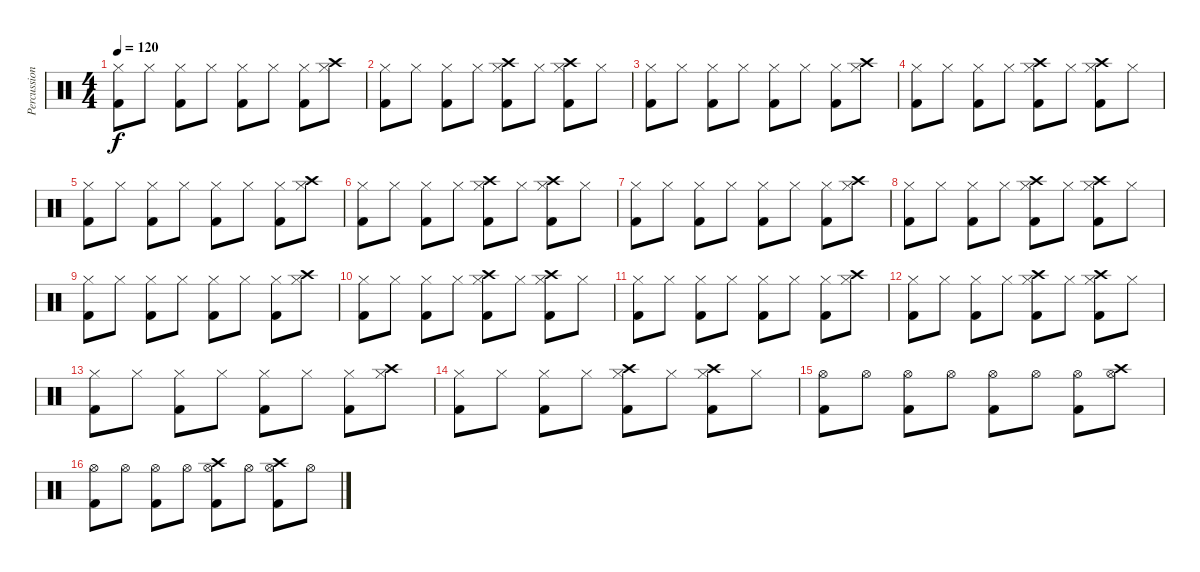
\track ("Percussion" "Percussion") {instrument percussion}
\staff {score}
\articulation defaults
\ts (4 4)
\tempo 120
\clef neutral
\ks c
("Hi-Hat (closed)" "Kick (hit) 2").8{dy f} "Hi-Hat (closed)".8 ("Hi-Hat (closed)" "Kick (hit) 2").8 "Hi-Hat (closed)".8 ("Hi-Hat (closed)" "Kick (hit) 2").8 "Hi-Hat (closed)".8 ("Hi-Hat (closed)" "Kick (hit) 2").8 ("Hi-Hat (closed)" "Crash high (hit)").8 |
("Hi-Hat (closed)" "Kick (hit) 2").8 "Hi-Hat (closed)".8 ("Hi-Hat (closed)" "Kick (hit) 2").8 "Hi-Hat (closed)".8 ("Hi-Hat (closed)" "Kick (hit) 2" "Crash high (hit)").8 "Hi-Hat (closed)".8 ("Hi-Hat (closed)" "Kick (hit) 2" "Crash high (hit)").8 "Hi-Hat (closed)".8 |
("Hi-Hat (closed)" "Kick (hit) 2").8 "Hi-Hat (closed)".8 ("Hi-Hat (closed)" "Kick (hit) 2").8 "Hi-Hat (closed)".8 ("Hi-Hat (closed)" "Kick (hit) 2").8 "Hi-Hat (closed)".8 ("Hi-Hat (closed)" "Kick (hit) 2").8 ("Hi-Hat (closed)" "Crash high (hit)").8 |
("Hi-Hat (closed)" "Kick (hit) 2").8 "Hi-Hat (closed)".8 ("Hi-Hat (closed)" "Kick (hit) 2").8 "Hi-Hat (closed)".8 ("Hi-Hat (closed)" "Kick (hit) 2" "Crash high (hit)").8 "Hi-Hat (closed)".8 ("Hi-Hat (closed)" "Kick (hit) 2" "Crash high (hit)").8 "Hi-Hat (closed)".8 |
("Hi-Hat (closed)" "Kick (hit) 2").8 "Hi-Hat (closed)".8 ("Hi-Hat (closed)" "Kick (hit) 2").8 "Hi-Hat (closed)".8 ("Hi-Hat (closed)" "Kick (hit) 2").8 "Hi-Hat (closed)".8 ("Hi-Hat (closed)" "Kick (hit) 2").8 ("Hi-Hat (closed)" "Crash high (hit)").8 |
("Hi-Hat (closed)" "Kick (hit) 2").8 "Hi-Hat (closed)".8 ("Hi-Hat (closed)" "Kick (hit) 2").8 "Hi-Hat (closed)".8 ("Hi-Hat (closed)" "Kick (hit) 2" "Crash high (hit)").8 "Hi-Hat (closed)".8 ("Hi-Hat (closed)" "Kick (hit) 2" "Crash high (hit)").8 "Hi-Hat (closed)".8 |
("Hi-Hat (closed)" "Kick (hit) 2").8 "Hi-Hat (closed)".8 ("Hi-Hat (closed)" "Kick (hit) 2").8 "Hi-Hat (closed)".8 ("Hi-Hat (closed)" "Kick (hit) 2").8 "Hi-Hat (closed)".8 ("Hi-Hat (closed)" "Kick (hit) 2").8 ("Hi-Hat (closed)" "Crash high (hit)").8 |
("Hi-Hat (closed)" "Kick (hit) 2").8 "Hi-Hat (closed)".8 ("Hi-Hat (closed)" "Kick (hit) 2").8 "Hi-Hat (closed)".8 ("Hi-Hat (closed)" "Kick (hit) 2" "Crash high (hit)").8 "Hi-Hat (closed)".8 ("Hi-Hat (closed)" "Kick (hit) 2" "Crash high (hit)").8 "Hi-Hat (closed)".8 |
("Hi-Hat (closed)" "Kick (hit) 2").8 "Hi-Hat (closed)".8 ("Hi-Hat (closed)" "Kick (hit) 2").8 "Hi-Hat (closed)".8 ("Hi-Hat (closed)" "Kick (hit) 2").8 "Hi-Hat (closed)".8 ("Hi-Hat (closed)" "Kick (hit) 2").8 ("Hi-Hat (closed)" "Crash high (hit)").8 |
("Hi-Hat (closed)" "Kick (hit) 2").8 "Hi-Hat (closed)".8 ("Hi-Hat (closed)" "Kick (hit) 2").8 "Hi-Hat (closed)".8 ("Hi-Hat (closed)" "Kick (hit) 2" "Crash high (hit)").8 "Hi-Hat (closed)".8 ("Hi-Hat (closed)" "Kick (hit) 2" "Crash high (hit)").8 "Hi-Hat (closed)".8 |
("Hi-Hat (closed)" "Kick (hit) 2").8 "Hi-Hat (closed)".8 ("Hi-Hat (closed)" "Kick (hit) 2").8 "Hi-Hat (closed)".8 ("Hi-Hat (closed)" "Kick (hit) 2").8 "Hi-Hat (closed)".8 ("Hi-Hat (closed)" "Kick (hit) 2").8 ("Hi-Hat (closed)" "Crash high (hit)").8 |
("Hi-Hat (closed)" "Kick (hit) 2").8 "Hi-Hat (closed)".8 ("Hi-Hat (closed)" "Kick (hit) 2").8 "Hi-Hat (closed)".8 ("Hi-Hat (closed)" "Kick (hit) 2" "Crash high (hit)").8 "Hi-Hat (closed)".8 ("Hi-Hat (closed)" "Kick (hit) 2" "Crash high (hit)").8 "Hi-Hat (closed)".8 |
("Hi-Hat (closed)" "Kick (hit) 2").8 "Hi-Hat (closed)".8 ("Hi-Hat (closed)" "Kick (hit) 2").8 "Hi-Hat (closed)".8 ("Hi-Hat (closed)" "Kick (hit) 2").8 "Hi-Hat (closed)".8 ("Hi-Hat (closed)" "Kick (hit) 2").8 ("Hi-Hat (closed)" "Crash high (hit)").8 |
("Hi-Hat (closed)" "Kick (hit) 2").8 "Hi-Hat (closed)".8 ("Hi-Hat (closed)" "Kick (hit) 2").8 "Hi-Hat (closed)".8 ("Hi-Hat (closed)" "Kick (hit) 2" "Crash high (hit)").8 "Hi-Hat (closed)".8 ("Hi-Hat (closed)" "Kick (hit) 2" "Crash high (hit)").8 "Hi-Hat (closed)".8 |
("Hi-Hat (open)" "Kick (hit) 2").8 "Hi-Hat (open)".8 ("Hi-Hat (open)" "Kick (hit) 2").8 "Hi-Hat (open)".8 ("Hi-Hat (open)" "Kick (hit) 2").8 "Hi-Hat (open)".8 ("Hi-Hat (open)" "Kick (hit) 2").8 ("Hi-Hat (open)" "Crash high (hit)").8 |
("Hi-Hat (open)" "Kick (hit) 2").8 "Hi-Hat (open)".8 ("Hi-Hat (open)" "Kick (hit) 2").8 "Hi-Hat (open)".8 ("Hi-Hat (open)" "Kick (hit) 2" "Crash high (hit)").8 "Hi-Hat (open)".8 ("Hi-Hat (open)" "Kick (hit) 2" "Crash high (hit)").8 "Hi-Hat (open)".8
